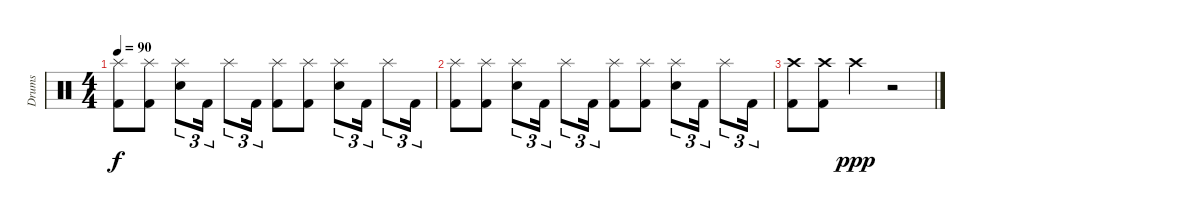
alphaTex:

\track ("Drums" "Drums") {instrument percussion}
\staff {score}
\articulation defaults
\ts (4 4)
\tempo 90
\clef neutral
\ks c
("Splash (hit)" "Kick (hit) 2").8{dy f} ("Splash (hit)" "Kick (hit) 2").8 ("Splash (hit)" "Electric Snare (hit)").8{tu (3 2)} "Kick (hit) 2".16{tu (3 2)} "Splash (hit)".8{tu (3 2)} "Kick (hit) 2".16{tu (3 2)} ("Splash (hit)" "Kick (hit) 2").8 ("Splash (hit)" "Kick (hit) 2").8 ("Splash (hit)" "Electric Snare (hit)").8{tu (3 2)} "Kick (hit) 2".16{tu (3 2)} "Splash (hit)".8{tu (3 2)} "Kick (hit) 2".16{tu (3 2)} |
("Splash (hit)" "Kick (hit) 2").8 ("Splash (hit)" "Kick (hit) 2").8 ("Splash (hit)" "Electric Snare (hit)").8{tu (3 2)} "Kick (hit) 2".16{tu (3 2)} "Splash (hit)".8{tu (3 2)} "Kick (hit) 2".16{tu (3 2)} ("Splash (hit)" "Kick (hit) 2").8 ("Splash (hit)" "Kick (hit) 2").8 ("Splash (hit)" "Electric Snare (hit)").8{tu (3 2)} "Kick (hit) 2".16{tu (3 2)} "Splash (hit)".8{tu (3 2)} "Kick (hit) 2".16{tu (3 2)} |
("Crash high (hit)" "Kick (hit) 2").8 ("Crash high (hit)" "Kick (hit) 2").8 "Crash high (hit)".4{dy ppp} r.2
